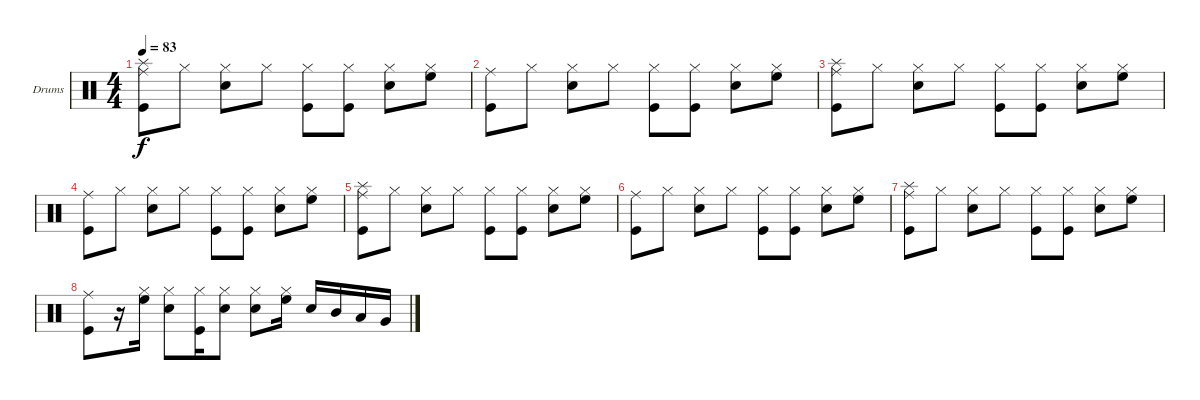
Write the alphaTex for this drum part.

\defaultSystemsLayout 4
\bracketExtendMode groupsimilarinstruments
\firstSystemTrackNameOrientation horizontal
\otherSystemsTrackNameOrientation horizontal
\track ("Reza" "Drums") {instrument percussion}
\staff {score}
\articulation defaults
\ts (4 4)
\tempo 83
\clef neutral
\ks c
("Kick (hit)" "Splash (hit)" "Ride (middle)").8{dy f} "Hi-Hat (closed)".8 ("Hi-Hat (closed)" "Snare (hit) 2").8 "Hi-Hat (closed)".8 ("Hi-Hat (closed)" "Kick (hit)").8 ("Hi-Hat (closed)" "Kick (hit)").8 ("Hi-Hat (closed)" "Snare (hit) 2").8 ("Hi-Hat (closed)" "High Floor Tom (hit)").8 |
("Kick (hit)" "Ride (middle)").8 "Hi-Hat (closed)".8 ("Hi-Hat (closed)" "Snare (hit) 2").8 "Hi-Hat (closed)".8 ("Hi-Hat (closed)" "Kick (hit)").8 ("Hi-Hat (closed)" "Kick (hit)").8 ("Hi-Hat (closed)" "Snare (hit) 2").8 ("Hi-Hat (closed)" "High Floor Tom (hit)").8 |
("Kick (hit)" "Splash (hit)" "Ride (middle)").8 "Hi-Hat (closed)".8 ("Hi-Hat (closed)" "Snare (hit) 2").8 "Hi-Hat (closed)".8 ("Hi-Hat (closed)" "Kick (hit)").8 ("Hi-Hat (closed)" "Kick (hit)").8 ("Hi-Hat (closed)" "Snare (hit) 2").8 ("Hi-Hat (closed)" "High Floor Tom (hit)").8 |
("Kick (hit)" "Ride (middle)").8 "Hi-Hat (closed)".8 ("Hi-Hat (closed)" "Snare (hit) 2").8 "Hi-Hat (closed)".8 ("Hi-Hat (closed)" "Kick (hit)").8 ("Hi-Hat (closed)" "Kick (hit)").8 ("Hi-Hat (closed)" "Snare (hit) 2").8 ("Hi-Hat (closed)" "High Floor Tom (hit)").8 |
("Kick (hit)" "Splash (hit)" "Ride (middle)").8 "Hi-Hat (closed)".8 ("Hi-Hat (closed)" "Snare (hit) 2").8 "Hi-Hat (closed)".8 ("Hi-Hat (closed)" "Kick (hit)").8 ("Hi-Hat (closed)" "Kick (hit)").8 ("Hi-Hat (closed)" "Snare (hit) 2").8 ("Hi-Hat (closed)" "High Floor Tom (hit)").8 |
("Kick (hit)" "Ride (middle)").8 "Hi-Hat (closed)".8 ("Hi-Hat (closed)" "Snare (hit) 2").8 "Hi-Hat (closed)".8 ("Hi-Hat (closed)" "Kick (hit)").8 ("Hi-Hat (closed)" "Kick (hit)").8 ("Hi-Hat (closed)" "Snare (hit) 2").8 ("Hi-Hat (closed)" "High Floor Tom (hit)").8 |
("Kick (hit)" "Splash (hit)" "Ride (middle)").8 "Hi-Hat (closed)".8 ("Hi-Hat (closed)" "Snare (hit) 2").8 "Hi-Hat (closed)".8 ("Hi-Hat (closed)" "Kick (hit)").8 ("Hi-Hat (closed)" "Kick (hit)").8 ("Hi-Hat (closed)" "Snare (hit) 2").8 ("Hi-Hat (closed)" "High Floor Tom (hit)").8 |
("Kick (hit)" "Ride (middle)").8 r.16 ("Hi-Hat (closed)" "High Floor Tom (hit)").16 ("Hi-Hat (closed)" "Snare (hit) 2").8 ("Hi-Hat (closed)" "Kick (hit)").16 ("Hi-Hat (closed)" "Snare (hit) 2").8 ("Hi-Hat (closed)" "Snare (hit) 2").8 ("Hi-Hat (closed)" "High Floor Tom (hit)").16 "Snare (hit) 2".16 "Mid Tom (hit)".16 "Low Tom (hit)".16 "Very Low Tom (hit)".16
